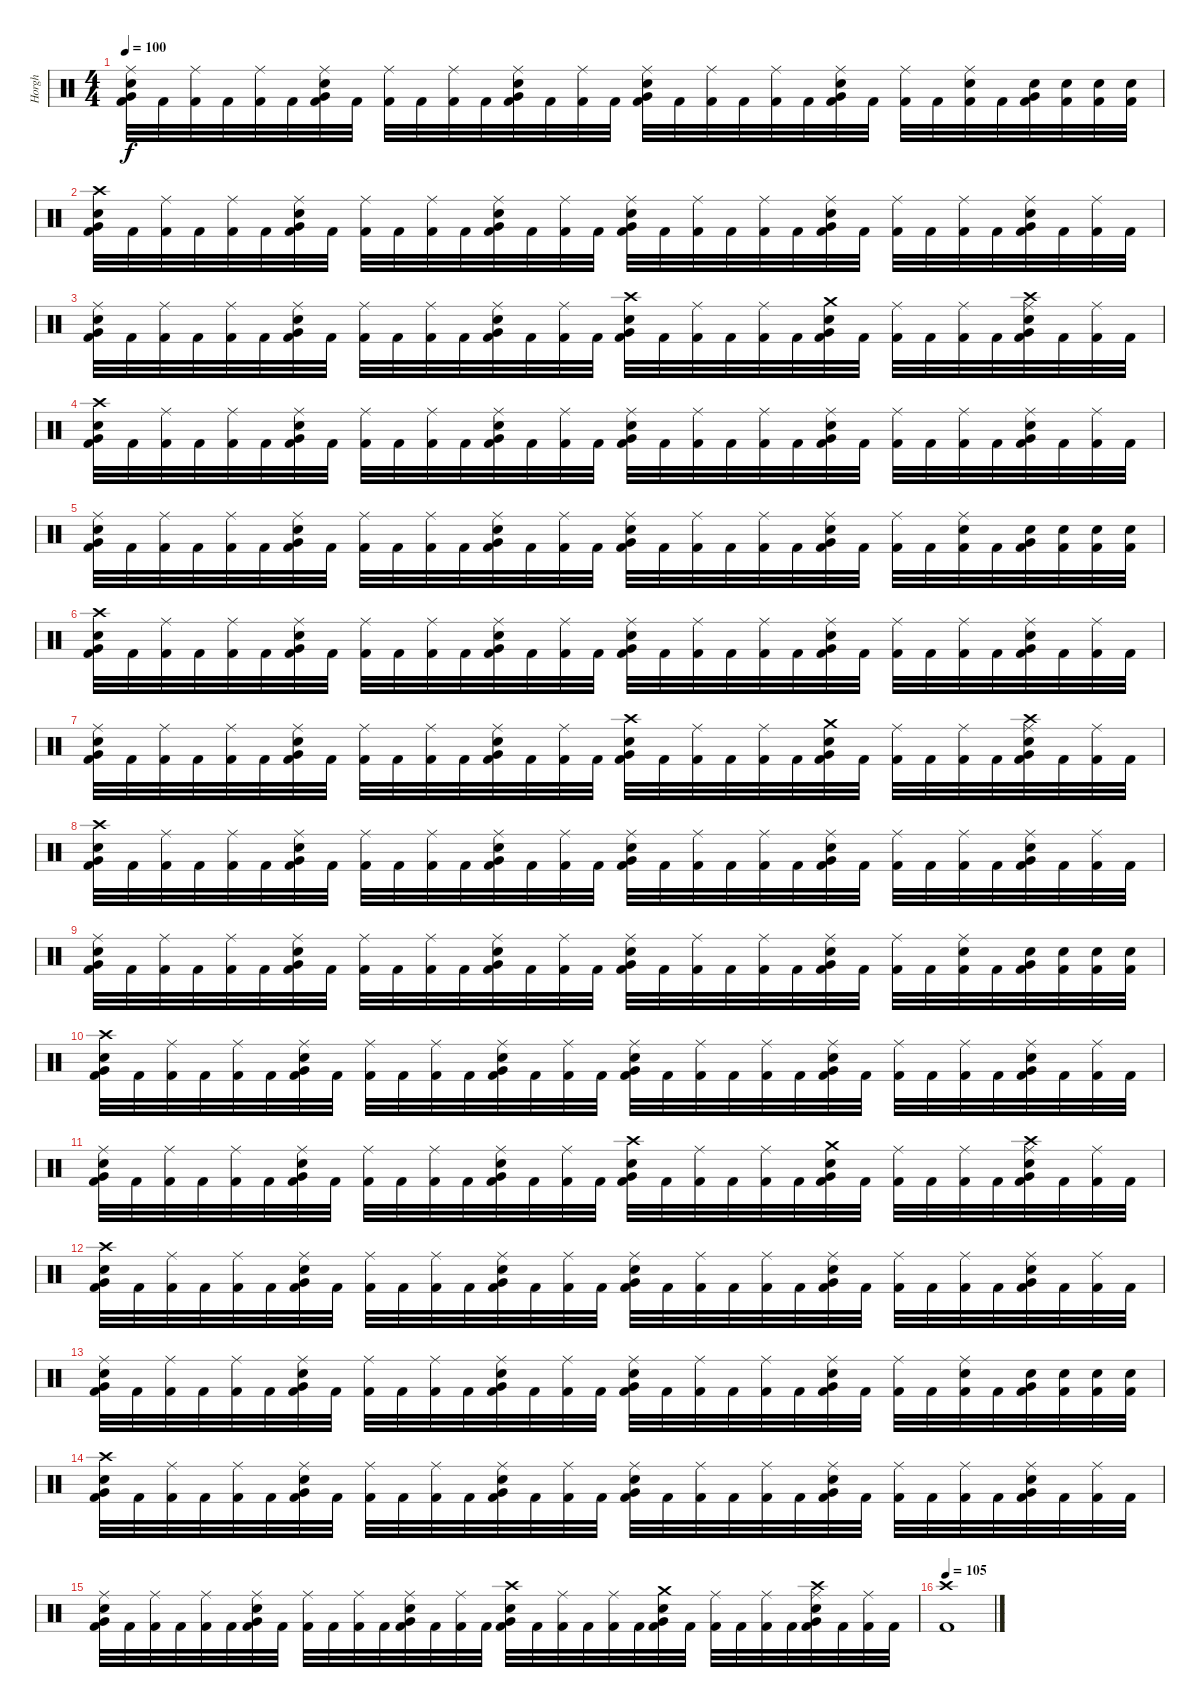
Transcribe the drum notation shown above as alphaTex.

\track ("Horgh" "Horgh") {instrument percussion}
\staff {score}
\articulation defaults
\ts (4 4)
\tempo 100
\clef neutral
\ks c
("Ride (middle)" "Electric Snare (hit)" "Very Low Tom (hit)" "Kick (hit) 2").32{dy f} "Kick (hit) 2".32 ("Ride (middle)" "Kick (hit) 2").32 "Kick (hit) 2".32 ("Ride (middle)" "Kick (hit) 2").32 "Kick (hit) 2".32 ("Ride (middle)" "Electric Snare (hit)" "Very Low Tom (hit)" "Kick (hit) 2").32 "Kick (hit) 2".32 ("Ride (middle)" "Kick (hit) 2").32 "Kick (hit) 2".32 ("Ride (middle)" "Kick (hit) 2").32 "Kick (hit) 2".32 ("Ride (middle)" "Electric Snare (hit)" "Very Low Tom (hit)" "Kick (hit) 2").32 "Kick (hit) 2".32 ("Ride (middle)" "Kick (hit) 2").32 "Kick (hit) 2".32 ("Ride (middle)" "Electric Snare (hit)" "Very Low Tom (hit)" "Kick (hit) 2").32 "Kick (hit) 2".32 ("Ride (middle)" "Kick (hit) 2").32 "Kick (hit) 2".32 ("Ride (middle)" "Kick (hit) 2").32 "Kick (hit) 2".32 ("Ride (middle)" "Electric Snare (hit)" "Very Low Tom (hit)" "Kick (hit) 2").32 "Kick (hit) 2".32 ("Ride (middle)" "Kick (hit) 2").32 "Kick (hit) 2".32 ("Ride (middle)" "Electric Snare (hit)" "Kick (hit) 2").32 "Kick (hit) 2".32 ("Electric Snare (hit)" "Very Low Tom (hit)" "Kick (hit) 2").32 ("Electric Snare (hit)" "Kick (hit) 2").32 ("Electric Snare (hit)" "Kick (hit) 2").32 ("Electric Snare (hit)" "Kick (hit) 2").32 |
("Crash high (hit)" "Electric Snare (hit)" "Very Low Tom (hit)" "Kick (hit) 2").32 "Kick (hit) 2".32 ("Ride (middle)" "Kick (hit) 2").32 "Kick (hit) 2".32 ("Ride (middle)" "Kick (hit) 2").32 "Kick (hit) 2".32 ("Ride (middle)" "Electric Snare (hit)" "Very Low Tom (hit)" "Kick (hit) 2").32 "Kick (hit) 2".32 ("Ride (middle)" "Kick (hit) 2").32 "Kick (hit) 2".32 ("Ride (middle)" "Kick (hit) 2").32 "Kick (hit) 2".32 ("Ride (middle)" "Electric Snare (hit)" "Very Low Tom (hit)" "Kick (hit) 2").32 "Kick (hit) 2".32 ("Ride (middle)" "Kick (hit) 2").32 "Kick (hit) 2".32 ("Ride (middle)" "Electric Snare (hit)" "Very Low Tom (hit)" "Kick (hit) 2").32 "Kick (hit) 2".32 ("Ride (middle)" "Kick (hit) 2").32 "Kick (hit) 2".32 ("Ride (middle)" "Kick (hit) 2").32 "Kick (hit) 2".32 ("Ride (middle)" "Electric Snare (hit)" "Very Low Tom (hit)" "Kick (hit) 2").32 "Kick (hit) 2".32 ("Ride (middle)" "Kick (hit) 2").32 "Kick (hit) 2".32 ("Ride (middle)" "Kick (hit) 2").32 "Kick (hit) 2".32 ("Ride (middle)" "Electric Snare (hit)" "Very Low Tom (hit)" "Kick (hit) 2").32 "Kick (hit) 2".32 ("Ride (middle)" "Kick (hit) 2").32 "Kick (hit) 2".32 |
("Ride (middle)" "Electric Snare (hit)" "Very Low Tom (hit)" "Kick (hit) 2").32 "Kick (hit) 2".32 ("Ride (middle)" "Kick (hit) 2").32 "Kick (hit) 2".32 ("Ride (middle)" "Kick (hit) 2").32 "Kick (hit) 2".32 ("Ride (middle)" "Electric Snare (hit)" "Very Low Tom (hit)" "Kick (hit) 2").32 "Kick (hit) 2".32 ("Ride (middle)" "Kick (hit) 2").32 "Kick (hit) 2".32 ("Ride (middle)" "Kick (hit) 2").32 "Kick (hit) 2".32 ("Ride (middle)" "Electric Snare (hit)" "Very Low Tom (hit)" "Kick (hit) 2").32 "Kick (hit) 2".32 ("Ride (middle)" "Kick (hit) 2").32 "Kick (hit) 2".32 ("Crash high (hit)" "Electric Snare (hit)" "Very Low Tom (hit)" "Kick (hit) 2").32 "Kick (hit) 2".32 ("Ride (middle)" "Kick (hit) 2").32 "Kick (hit) 2".32 ("Ride (middle)" "Kick (hit) 2").32 "Kick (hit) 2".32 ("Crash medium (hit)" "Electric Snare (hit)" "Very Low Tom (hit)" "Kick (hit) 2").32 "Kick (hit) 2".32 ("Ride (middle)" "Kick (hit) 2").32 "Kick (hit) 2".32 ("Ride (middle)" "Kick (hit) 2").32 "Kick (hit) 2".32 ("Crash high (hit)" "Ride (middle)" "Electric Snare (hit)" "Very Low Tom (hit)" "Kick (hit) 2").32 "Kick (hit) 2".32 ("Ride (middle)" "Kick (hit) 2").32 "Kick (hit) 2".32 |
("Crash high (hit)" "Electric Snare (hit)" "Very Low Tom (hit)" "Kick (hit) 2").32 "Kick (hit) 2".32 ("Ride (middle)" "Kick (hit) 2").32 "Kick (hit) 2".32 ("Ride (middle)" "Kick (hit) 2").32 "Kick (hit) 2".32 ("Ride (middle)" "Electric Snare (hit)" "Very Low Tom (hit)" "Kick (hit) 2").32 "Kick (hit) 2".32 ("Ride (middle)" "Kick (hit) 2").32 "Kick (hit) 2".32 ("Ride (middle)" "Kick (hit) 2").32 "Kick (hit) 2".32 ("Ride (middle)" "Electric Snare (hit)" "Very Low Tom (hit)" "Kick (hit) 2").32 "Kick (hit) 2".32 ("Ride (middle)" "Kick (hit) 2").32 "Kick (hit) 2".32 ("Ride (middle)" "Electric Snare (hit)" "Very Low Tom (hit)" "Kick (hit) 2").32 "Kick (hit) 2".32 ("Ride (middle)" "Kick (hit) 2").32 "Kick (hit) 2".32 ("Ride (middle)" "Kick (hit) 2").32 "Kick (hit) 2".32 ("Ride (middle)" "Electric Snare (hit)" "Very Low Tom (hit)" "Kick (hit) 2").32 "Kick (hit) 2".32 ("Ride (middle)" "Kick (hit) 2").32 "Kick (hit) 2".32 ("Ride (middle)" "Kick (hit) 2").32 "Kick (hit) 2".32 ("Ride (middle)" "Electric Snare (hit)" "Very Low Tom (hit)" "Kick (hit) 2").32 "Kick (hit) 2".32 ("Ride (middle)" "Kick (hit) 2").32 "Kick (hit) 2".32 |
("Ride (middle)" "Electric Snare (hit)" "Very Low Tom (hit)" "Kick (hit) 2").32 "Kick (hit) 2".32 ("Ride (middle)" "Kick (hit) 2").32 "Kick (hit) 2".32 ("Ride (middle)" "Kick (hit) 2").32 "Kick (hit) 2".32 ("Ride (middle)" "Electric Snare (hit)" "Very Low Tom (hit)" "Kick (hit) 2").32 "Kick (hit) 2".32 ("Ride (middle)" "Kick (hit) 2").32 "Kick (hit) 2".32 ("Ride (middle)" "Kick (hit) 2").32 "Kick (hit) 2".32 ("Ride (middle)" "Electric Snare (hit)" "Very Low Tom (hit)" "Kick (hit) 2").32 "Kick (hit) 2".32 ("Ride (middle)" "Kick (hit) 2").32 "Kick (hit) 2".32 ("Ride (middle)" "Electric Snare (hit)" "Very Low Tom (hit)" "Kick (hit) 2").32 "Kick (hit) 2".32 ("Ride (middle)" "Kick (hit) 2").32 "Kick (hit) 2".32 ("Ride (middle)" "Kick (hit) 2").32 "Kick (hit) 2".32 ("Ride (middle)" "Electric Snare (hit)" "Very Low Tom (hit)" "Kick (hit) 2").32 "Kick (hit) 2".32 ("Ride (middle)" "Kick (hit) 2").32 "Kick (hit) 2".32 ("Ride (middle)" "Electric Snare (hit)" "Kick (hit) 2").32 "Kick (hit) 2".32 ("Electric Snare (hit)" "Very Low Tom (hit)" "Kick (hit) 2").32 ("Electric Snare (hit)" "Kick (hit) 2").32 ("Electric Snare (hit)" "Kick (hit) 2").32 ("Electric Snare (hit)" "Kick (hit) 2").32 |
("Crash high (hit)" "Electric Snare (hit)" "Very Low Tom (hit)" "Kick (hit) 2").32 "Kick (hit) 2".32 ("Ride (middle)" "Kick (hit) 2").32 "Kick (hit) 2".32 ("Ride (middle)" "Kick (hit) 2").32 "Kick (hit) 2".32 ("Ride (middle)" "Electric Snare (hit)" "Very Low Tom (hit)" "Kick (hit) 2").32 "Kick (hit) 2".32 ("Ride (middle)" "Kick (hit) 2").32 "Kick (hit) 2".32 ("Ride (middle)" "Kick (hit) 2").32 "Kick (hit) 2".32 ("Ride (middle)" "Electric Snare (hit)" "Very Low Tom (hit)" "Kick (hit) 2").32 "Kick (hit) 2".32 ("Ride (middle)" "Kick (hit) 2").32 "Kick (hit) 2".32 ("Ride (middle)" "Electric Snare (hit)" "Very Low Tom (hit)" "Kick (hit) 2").32 "Kick (hit) 2".32 ("Ride (middle)" "Kick (hit) 2").32 "Kick (hit) 2".32 ("Ride (middle)" "Kick (hit) 2").32 "Kick (hit) 2".32 ("Ride (middle)" "Electric Snare (hit)" "Very Low Tom (hit)" "Kick (hit) 2").32 "Kick (hit) 2".32 ("Ride (middle)" "Kick (hit) 2").32 "Kick (hit) 2".32 ("Ride (middle)" "Kick (hit) 2").32 "Kick (hit) 2".32 ("Ride (middle)" "Electric Snare (hit)" "Very Low Tom (hit)" "Kick (hit) 2").32 "Kick (hit) 2".32 ("Ride (middle)" "Kick (hit) 2").32 "Kick (hit) 2".32 |
("Ride (middle)" "Electric Snare (hit)" "Very Low Tom (hit)" "Kick (hit) 2").32 "Kick (hit) 2".32 ("Ride (middle)" "Kick (hit) 2").32 "Kick (hit) 2".32 ("Ride (middle)" "Kick (hit) 2").32 "Kick (hit) 2".32 ("Ride (middle)" "Electric Snare (hit)" "Very Low Tom (hit)" "Kick (hit) 2").32 "Kick (hit) 2".32 ("Ride (middle)" "Kick (hit) 2").32 "Kick (hit) 2".32 ("Ride (middle)" "Kick (hit) 2").32 "Kick (hit) 2".32 ("Ride (middle)" "Electric Snare (hit)" "Very Low Tom (hit)" "Kick (hit) 2").32 "Kick (hit) 2".32 ("Ride (middle)" "Kick (hit) 2").32 "Kick (hit) 2".32 ("Crash high (hit)" "Electric Snare (hit)" "Very Low Tom (hit)" "Kick (hit) 2").32 "Kick (hit) 2".32 ("Ride (middle)" "Kick (hit) 2").32 "Kick (hit) 2".32 ("Ride (middle)" "Kick (hit) 2").32 "Kick (hit) 2".32 ("Crash medium (hit)" "Electric Snare (hit)" "Very Low Tom (hit)" "Kick (hit) 2").32 "Kick (hit) 2".32 ("Ride (middle)" "Kick (hit) 2").32 "Kick (hit) 2".32 ("Ride (middle)" "Kick (hit) 2").32 "Kick (hit) 2".32 ("Crash high (hit)" "Ride (middle)" "Electric Snare (hit)" "Very Low Tom (hit)" "Kick (hit) 2").32 "Kick (hit) 2".32 ("Ride (middle)" "Kick (hit) 2").32 "Kick (hit) 2".32 |
("Crash high (hit)" "Electric Snare (hit)" "Very Low Tom (hit)" "Kick (hit) 2").32 "Kick (hit) 2".32 ("Ride (middle)" "Kick (hit) 2").32 "Kick (hit) 2".32 ("Ride (middle)" "Kick (hit) 2").32 "Kick (hit) 2".32 ("Ride (middle)" "Electric Snare (hit)" "Very Low Tom (hit)" "Kick (hit) 2").32 "Kick (hit) 2".32 ("Ride (middle)" "Kick (hit) 2").32 "Kick (hit) 2".32 ("Ride (middle)" "Kick (hit) 2").32 "Kick (hit) 2".32 ("Ride (middle)" "Electric Snare (hit)" "Very Low Tom (hit)" "Kick (hit) 2").32 "Kick (hit) 2".32 ("Ride (middle)" "Kick (hit) 2").32 "Kick (hit) 2".32 ("Ride (middle)" "Electric Snare (hit)" "Very Low Tom (hit)" "Kick (hit) 2").32 "Kick (hit) 2".32 ("Ride (middle)" "Kick (hit) 2").32 "Kick (hit) 2".32 ("Ride (middle)" "Kick (hit) 2").32 "Kick (hit) 2".32 ("Ride (middle)" "Electric Snare (hit)" "Very Low Tom (hit)" "Kick (hit) 2").32 "Kick (hit) 2".32 ("Ride (middle)" "Kick (hit) 2").32 "Kick (hit) 2".32 ("Ride (middle)" "Kick (hit) 2").32 "Kick (hit) 2".32 ("Ride (middle)" "Electric Snare (hit)" "Very Low Tom (hit)" "Kick (hit) 2").32 "Kick (hit) 2".32 ("Ride (middle)" "Kick (hit) 2").32 "Kick (hit) 2".32 |
("Ride (middle)" "Electric Snare (hit)" "Very Low Tom (hit)" "Kick (hit) 2").32 "Kick (hit) 2".32 ("Ride (middle)" "Kick (hit) 2").32 "Kick (hit) 2".32 ("Ride (middle)" "Kick (hit) 2").32 "Kick (hit) 2".32 ("Ride (middle)" "Electric Snare (hit)" "Very Low Tom (hit)" "Kick (hit) 2").32 "Kick (hit) 2".32 ("Ride (middle)" "Kick (hit) 2").32 "Kick (hit) 2".32 ("Ride (middle)" "Kick (hit) 2").32 "Kick (hit) 2".32 ("Ride (middle)" "Electric Snare (hit)" "Very Low Tom (hit)" "Kick (hit) 2").32 "Kick (hit) 2".32 ("Ride (middle)" "Kick (hit) 2").32 "Kick (hit) 2".32 ("Ride (middle)" "Electric Snare (hit)" "Very Low Tom (hit)" "Kick (hit) 2").32 "Kick (hit) 2".32 ("Ride (middle)" "Kick (hit) 2").32 "Kick (hit) 2".32 ("Ride (middle)" "Kick (hit) 2").32 "Kick (hit) 2".32 ("Ride (middle)" "Electric Snare (hit)" "Very Low Tom (hit)" "Kick (hit) 2").32 "Kick (hit) 2".32 ("Ride (middle)" "Kick (hit) 2").32 "Kick (hit) 2".32 ("Ride (middle)" "Electric Snare (hit)" "Kick (hit) 2").32 "Kick (hit) 2".32 ("Electric Snare (hit)" "Very Low Tom (hit)" "Kick (hit) 2").32 ("Electric Snare (hit)" "Kick (hit) 2").32 ("Electric Snare (hit)" "Kick (hit) 2").32 ("Electric Snare (hit)" "Kick (hit) 2").32 |
("Crash high (hit)" "Electric Snare (hit)" "Very Low Tom (hit)" "Kick (hit) 2").32 "Kick (hit) 2".32 ("Ride (middle)" "Kick (hit) 2").32 "Kick (hit) 2".32 ("Ride (middle)" "Kick (hit) 2").32 "Kick (hit) 2".32 ("Ride (middle)" "Electric Snare (hit)" "Very Low Tom (hit)" "Kick (hit) 2").32 "Kick (hit) 2".32 ("Ride (middle)" "Kick (hit) 2").32 "Kick (hit) 2".32 ("Ride (middle)" "Kick (hit) 2").32 "Kick (hit) 2".32 ("Ride (middle)" "Electric Snare (hit)" "Very Low Tom (hit)" "Kick (hit) 2").32 "Kick (hit) 2".32 ("Ride (middle)" "Kick (hit) 2").32 "Kick (hit) 2".32 ("Ride (middle)" "Electric Snare (hit)" "Very Low Tom (hit)" "Kick (hit) 2").32 "Kick (hit) 2".32 ("Ride (middle)" "Kick (hit) 2").32 "Kick (hit) 2".32 ("Ride (middle)" "Kick (hit) 2").32 "Kick (hit) 2".32 ("Ride (middle)" "Electric Snare (hit)" "Very Low Tom (hit)" "Kick (hit) 2").32 "Kick (hit) 2".32 ("Ride (middle)" "Kick (hit) 2").32 "Kick (hit) 2".32 ("Ride (middle)" "Kick (hit) 2").32 "Kick (hit) 2".32 ("Ride (middle)" "Electric Snare (hit)" "Very Low Tom (hit)" "Kick (hit) 2").32 "Kick (hit) 2".32 ("Ride (middle)" "Kick (hit) 2").32 "Kick (hit) 2".32 |
("Ride (middle)" "Electric Snare (hit)" "Very Low Tom (hit)" "Kick (hit) 2").32 "Kick (hit) 2".32 ("Ride (middle)" "Kick (hit) 2").32 "Kick (hit) 2".32 ("Ride (middle)" "Kick (hit) 2").32 "Kick (hit) 2".32 ("Ride (middle)" "Electric Snare (hit)" "Very Low Tom (hit)" "Kick (hit) 2").32 "Kick (hit) 2".32 ("Ride (middle)" "Kick (hit) 2").32 "Kick (hit) 2".32 ("Ride (middle)" "Kick (hit) 2").32 "Kick (hit) 2".32 ("Ride (middle)" "Electric Snare (hit)" "Very Low Tom (hit)" "Kick (hit) 2").32 "Kick (hit) 2".32 ("Ride (middle)" "Kick (hit) 2").32 "Kick (hit) 2".32 ("Crash high (hit)" "Electric Snare (hit)" "Very Low Tom (hit)" "Kick (hit) 2").32 "Kick (hit) 2".32 ("Ride (middle)" "Kick (hit) 2").32 "Kick (hit) 2".32 ("Ride (middle)" "Kick (hit) 2").32 "Kick (hit) 2".32 ("Crash medium (hit)" "Electric Snare (hit)" "Very Low Tom (hit)" "Kick (hit) 2").32 "Kick (hit) 2".32 ("Ride (middle)" "Kick (hit) 2").32 "Kick (hit) 2".32 ("Ride (middle)" "Kick (hit) 2").32 "Kick (hit) 2".32 ("Crash high (hit)" "Ride (middle)" "Electric Snare (hit)" "Very Low Tom (hit)" "Kick (hit) 2").32 "Kick (hit) 2".32 ("Ride (middle)" "Kick (hit) 2").32 "Kick (hit) 2".32 |
("Crash high (hit)" "Electric Snare (hit)" "Very Low Tom (hit)" "Kick (hit) 2").32 "Kick (hit) 2".32 ("Ride (middle)" "Kick (hit) 2").32 "Kick (hit) 2".32 ("Ride (middle)" "Kick (hit) 2").32 "Kick (hit) 2".32 ("Ride (middle)" "Electric Snare (hit)" "Very Low Tom (hit)" "Kick (hit) 2").32 "Kick (hit) 2".32 ("Ride (middle)" "Kick (hit) 2").32 "Kick (hit) 2".32 ("Ride (middle)" "Kick (hit) 2").32 "Kick (hit) 2".32 ("Ride (middle)" "Electric Snare (hit)" "Very Low Tom (hit)" "Kick (hit) 2").32 "Kick (hit) 2".32 ("Ride (middle)" "Kick (hit) 2").32 "Kick (hit) 2".32 ("Ride (middle)" "Electric Snare (hit)" "Very Low Tom (hit)" "Kick (hit) 2").32 "Kick (hit) 2".32 ("Ride (middle)" "Kick (hit) 2").32 "Kick (hit) 2".32 ("Ride (middle)" "Kick (hit) 2").32 "Kick (hit) 2".32 ("Ride (middle)" "Electric Snare (hit)" "Very Low Tom (hit)" "Kick (hit) 2").32 "Kick (hit) 2".32 ("Ride (middle)" "Kick (hit) 2").32 "Kick (hit) 2".32 ("Ride (middle)" "Kick (hit) 2").32 "Kick (hit) 2".32 ("Ride (middle)" "Electric Snare (hit)" "Very Low Tom (hit)" "Kick (hit) 2").32 "Kick (hit) 2".32 ("Ride (middle)" "Kick (hit) 2").32 "Kick (hit) 2".32 |
("Ride (middle)" "Electric Snare (hit)" "Very Low Tom (hit)" "Kick (hit) 2").32 "Kick (hit) 2".32 ("Ride (middle)" "Kick (hit) 2").32 "Kick (hit) 2".32 ("Ride (middle)" "Kick (hit) 2").32 "Kick (hit) 2".32 ("Ride (middle)" "Electric Snare (hit)" "Very Low Tom (hit)" "Kick (hit) 2").32 "Kick (hit) 2".32 ("Ride (middle)" "Kick (hit) 2").32 "Kick (hit) 2".32 ("Ride (middle)" "Kick (hit) 2").32 "Kick (hit) 2".32 ("Ride (middle)" "Electric Snare (hit)" "Very Low Tom (hit)" "Kick (hit) 2").32 "Kick (hit) 2".32 ("Ride (middle)" "Kick (hit) 2").32 "Kick (hit) 2".32 ("Ride (middle)" "Electric Snare (hit)" "Very Low Tom (hit)" "Kick (hit) 2").32 "Kick (hit) 2".32 ("Ride (middle)" "Kick (hit) 2").32 "Kick (hit) 2".32 ("Ride (middle)" "Kick (hit) 2").32 "Kick (hit) 2".32 ("Ride (middle)" "Electric Snare (hit)" "Very Low Tom (hit)" "Kick (hit) 2").32 "Kick (hit) 2".32 ("Ride (middle)" "Kick (hit) 2").32 "Kick (hit) 2".32 ("Ride (middle)" "Electric Snare (hit)" "Kick (hit) 2").32 "Kick (hit) 2".32 ("Electric Snare (hit)" "Very Low Tom (hit)" "Kick (hit) 2").32 ("Electric Snare (hit)" "Kick (hit) 2").32 ("Electric Snare (hit)" "Kick (hit) 2").32 ("Electric Snare (hit)" "Kick (hit) 2").32 |
("Crash high (hit)" "Electric Snare (hit)" "Very Low Tom (hit)" "Kick (hit) 2").32 "Kick (hit) 2".32 ("Ride (middle)" "Kick (hit) 2").32 "Kick (hit) 2".32 ("Ride (middle)" "Kick (hit) 2").32 "Kick (hit) 2".32 ("Ride (middle)" "Electric Snare (hit)" "Very Low Tom (hit)" "Kick (hit) 2").32 "Kick (hit) 2".32 ("Ride (middle)" "Kick (hit) 2").32 "Kick (hit) 2".32 ("Ride (middle)" "Kick (hit) 2").32 "Kick (hit) 2".32 ("Ride (middle)" "Electric Snare (hit)" "Very Low Tom (hit)" "Kick (hit) 2").32 "Kick (hit) 2".32 ("Ride (middle)" "Kick (hit) 2").32 "Kick (hit) 2".32 ("Ride (middle)" "Electric Snare (hit)" "Very Low Tom (hit)" "Kick (hit) 2").32 "Kick (hit) 2".32 ("Ride (middle)" "Kick (hit) 2").32 "Kick (hit) 2".32 ("Ride (middle)" "Kick (hit) 2").32 "Kick (hit) 2".32 ("Ride (middle)" "Electric Snare (hit)" "Very Low Tom (hit)" "Kick (hit) 2").32 "Kick (hit) 2".32 ("Ride (middle)" "Kick (hit) 2").32 "Kick (hit) 2".32 ("Ride (middle)" "Kick (hit) 2").32 "Kick (hit) 2".32 ("Ride (middle)" "Electric Snare (hit)" "Very Low Tom (hit)" "Kick (hit) 2").32 "Kick (hit) 2".32 ("Ride (middle)" "Kick (hit) 2").32 "Kick (hit) 2".32 |
("Ride (middle)" "Electric Snare (hit)" "Very Low Tom (hit)" "Kick (hit) 2").32 "Kick (hit) 2".32 ("Ride (middle)" "Kick (hit) 2").32 "Kick (hit) 2".32 ("Ride (middle)" "Kick (hit) 2").32 "Kick (hit) 2".32 ("Ride (middle)" "Electric Snare (hit)" "Very Low Tom (hit)" "Kick (hit) 2").32 "Kick (hit) 2".32 ("Ride (middle)" "Kick (hit) 2").32 "Kick (hit) 2".32 ("Ride (middle)" "Kick (hit) 2").32 "Kick (hit) 2".32 ("Ride (middle)" "Electric Snare (hit)" "Very Low Tom (hit)" "Kick (hit) 2").32 "Kick (hit) 2".32 ("Ride (middle)" "Kick (hit) 2").32 "Kick (hit) 2".32 ("Crash high (hit)" "Electric Snare (hit)" "Very Low Tom (hit)" "Kick (hit) 2").32 "Kick (hit) 2".32 ("Ride (middle)" "Kick (hit) 2").32 "Kick (hit) 2".32 ("Ride (middle)" "Kick (hit) 2").32 "Kick (hit) 2".32 ("Crash medium (hit)" "Electric Snare (hit)" "Very Low Tom (hit)" "Kick (hit) 2").32 "Kick (hit) 2".32 ("Ride (middle)" "Kick (hit) 2").32 "Kick (hit) 2".32 ("Ride (middle)" "Kick (hit) 2").32 "Kick (hit) 2".32 ("Crash high (hit)" "Ride (middle)" "Electric Snare (hit)" "Very Low Tom (hit)" "Kick (hit) 2").32 "Kick (hit) 2".32 ("Ride (middle)" "Kick (hit) 2").32 "Kick (hit) 2".32 |
\tempo 105
("Crash high (hit)" "Kick (hit) 2").1
